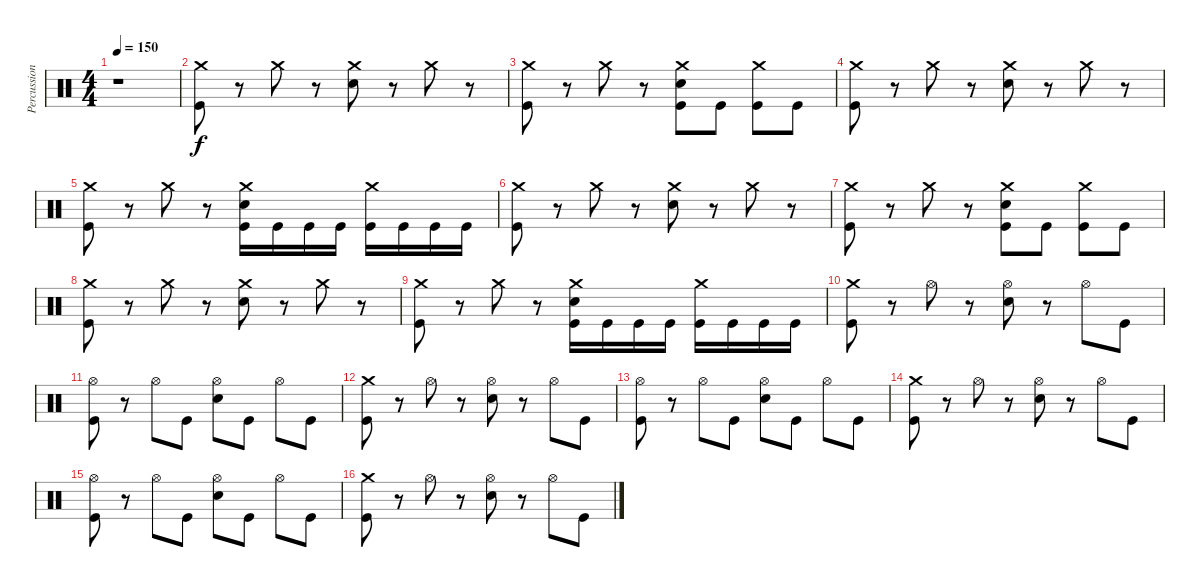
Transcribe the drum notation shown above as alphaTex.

\track ("Percussion" "Percussion") {instrument percussion}
\staff {score}
\articulation defaults
\ts (4 4)
\tempo 150
\clef neutral
\ks c
r.1{dy f} |
("Crash medium (hit)" "Kick (hit)").8 r.8 "Crash medium (hit)".8 r.8 ("Crash medium (hit)" "Snare (hit) 2").8 r.8 "Crash medium (hit)".8 r.8 |
("Crash medium (hit)" "Kick (hit)").8 r.8 "Crash medium (hit)".8 r.8 ("Crash medium (hit)" "Snare (hit) 2" "Kick (hit)").8 "Kick (hit)".8 ("Crash medium (hit)" "Kick (hit)").8 "Kick (hit)".8 |
("Crash medium (hit)" "Kick (hit)").8 r.8 "Crash medium (hit)".8 r.8 ("Crash medium (hit)" "Snare (hit) 2").8 r.8 "Crash medium (hit)".8 r.8 |
("Crash medium (hit)" "Kick (hit)").8 r.8 "Crash medium (hit)".8 r.8 ("Crash medium (hit)" "Snare (hit) 2" "Kick (hit)").16 "Kick (hit)".16 "Kick (hit)".16 "Kick (hit)".16 ("Crash medium (hit)" "Kick (hit)").16 "Kick (hit)".16 "Kick (hit)".16 "Kick (hit)".16 |
("Crash medium (hit)" "Kick (hit)").8 r.8 "Crash medium (hit)".8 r.8 ("Crash medium (hit)" "Snare (hit) 2").8 r.8 "Crash medium (hit)".8 r.8 |
("Crash medium (hit)" "Kick (hit)").8 r.8 "Crash medium (hit)".8 r.8 ("Crash medium (hit)" "Snare (hit) 2" "Kick (hit)").8 "Kick (hit)".8 ("Crash medium (hit)" "Kick (hit)").8 "Kick (hit)".8 |
("Crash medium (hit)" "Kick (hit)").8 r.8 "Crash medium (hit)".8 r.8 ("Crash medium (hit)" "Snare (hit) 2").8 r.8 "Crash medium (hit)".8 r.8 |
("Crash medium (hit)" "Kick (hit)").8 r.8 "Crash medium (hit)".8 r.8 ("Crash medium (hit)" "Snare (hit) 2" "Kick (hit)").16 "Kick (hit)".16 "Kick (hit)".16 "Kick (hit)".16 ("Crash medium (hit)" "Kick (hit)").16 "Kick (hit)".16 "Kick (hit)".16 "Kick (hit)".16 |
("Crash medium (hit)" "Kick (hit)").8 r.8 "Hi-Hat (open)".8 r.8 ("Hi-Hat (open)" "Snare (hit) 2").8 r.8 "Hi-Hat (open)".8 "Kick (hit)".8 |
("Hi-Hat (open)" "Kick (hit)").8 r.8 "Hi-Hat (open)".8 "Kick (hit)".8 ("Hi-Hat (open)" "Snare (hit) 2").8 "Kick (hit)".8 "Hi-Hat (open)".8 "Kick (hit)".8 |
("Crash medium (hit)" "Kick (hit)").8 r.8 "Hi-Hat (open)".8 r.8 ("Hi-Hat (open)" "Snare (hit) 2").8 r.8 "Hi-Hat (open)".8 "Kick (hit)".8 |
("Hi-Hat (open)" "Kick (hit)").8 r.8 "Hi-Hat (open)".8 "Kick (hit)".8 ("Hi-Hat (open)" "Snare (hit) 2").8 "Kick (hit)".8 "Hi-Hat (open)".8 "Kick (hit)".8 |
("Crash medium (hit)" "Kick (hit)").8 r.8 "Hi-Hat (open)".8 r.8 ("Hi-Hat (open)" "Snare (hit) 2").8 r.8 "Hi-Hat (open)".8 "Kick (hit)".8 |
("Hi-Hat (open)" "Kick (hit)").8 r.8 "Hi-Hat (open)".8 "Kick (hit)".8 ("Hi-Hat (open)" "Snare (hit) 2").8 "Kick (hit)".8 "Hi-Hat (open)".8 "Kick (hit)".8 |
("Crash medium (hit)" "Kick (hit)").8 r.8 "Hi-Hat (open)".8 r.8 ("Hi-Hat (open)" "Snare (hit) 2").8 r.8 "Hi-Hat (open)".8 "Kick (hit)".8
